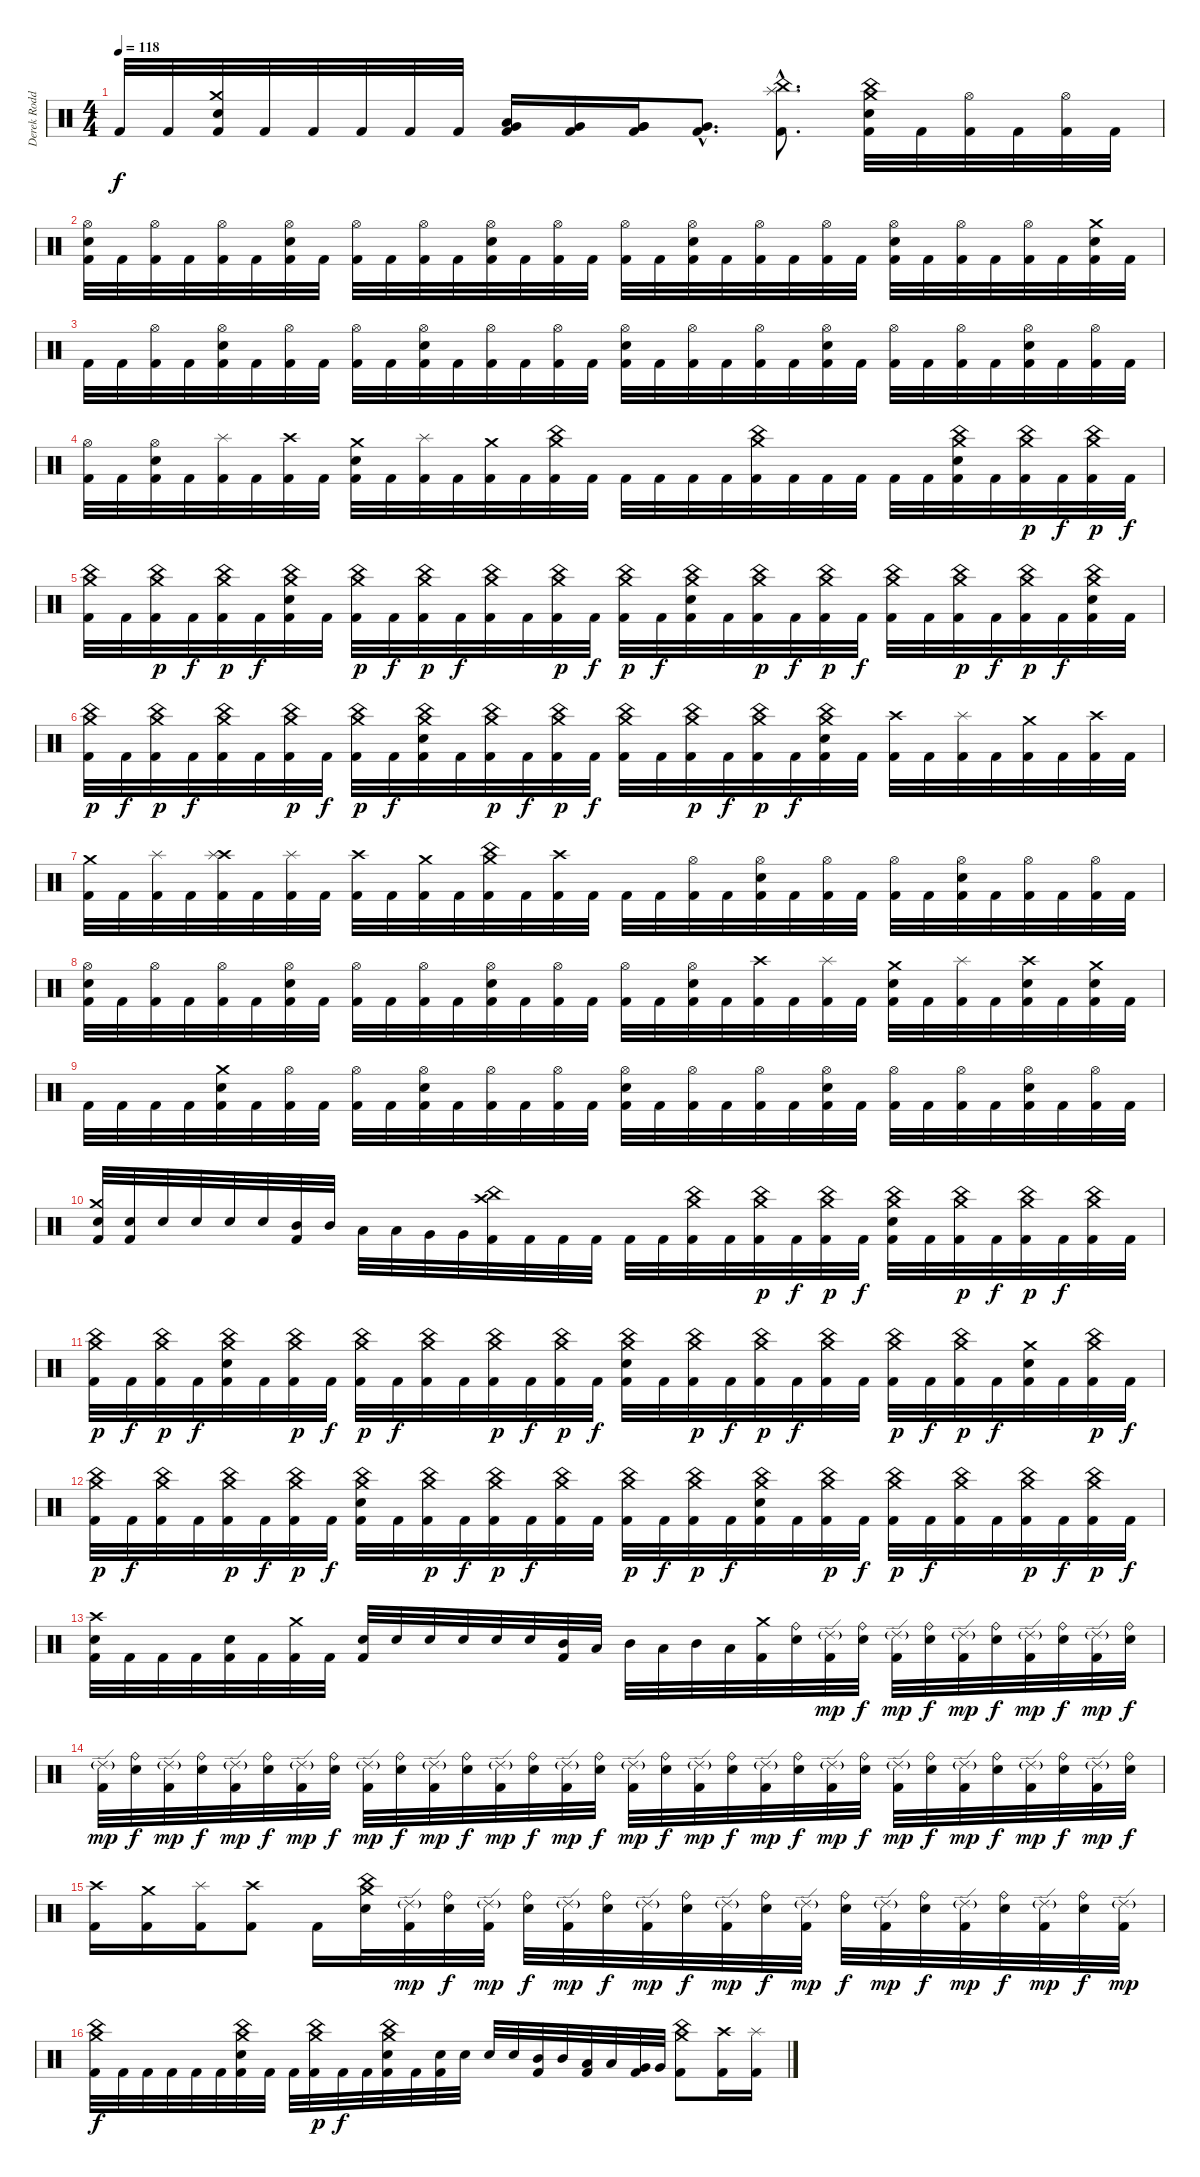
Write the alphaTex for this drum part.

\track ("Derek Roddy" "Derek Rodd") {instrument percussion}
\staff {score}
\articulation defaults
\ts (4 4)
\tempo 118
\clef neutral
\ks c "Kick (hit) 2".32{dy f} "Kick (hit) 2".32
("Crash medium (hit)" "Electric Snare (hit)" "Kick (hit) 2").32 "Kick (hit) 2".32 "Kick (hit) 2".32 "Kick (hit) 2".32 "Kick (hit) 2".32 "Kick (hit) 2".32 ("Low Tom (hit)" "Very Low Tom (hit)" "Kick (hit) 2").16 ("Very Low Tom (hit)" "Kick (hit) 2").16 ("Very Low Tom (hit)" "Very Low Tom (hit)" "Kick (hit) 2").16 ("Very Low Tom (hit)"{hac} "Kick (hit) 2"{hac}).8{d} ("Splash (hit)"{hac} "China (hit)"{hac} "Kick (hit) 2"{hac}).8{d} ("Crash medium (hit)" "China (hit)" "Electric Snare (hit)" "Kick (hit) 2").32 "Kick (hit) 2".32 ("Hi-Hat (open)" "Kick (hit) 2").32 "Kick (hit) 2".32 ("Hi-Hat (open)" "Kick (hit) 2").32 "Kick (hit) 2".32 |
("Hi-Hat (open)" "Electric Snare (hit)" "Kick (hit) 2").32 "Kick (hit) 2".32 ("Hi-Hat (open)" "Kick (hit) 2").32 "Kick (hit) 2".32 ("Hi-Hat (open)" "Kick (hit) 2").32 "Kick (hit) 2".32 ("Hi-Hat (open)" "Electric Snare (hit)" "Kick (hit) 2").32 "Kick (hit) 2".32 ("Hi-Hat (open)" "Kick (hit) 2").32 "Kick (hit) 2".32 ("Hi-Hat (open)" "Kick (hit) 2").32 "Kick (hit) 2".32 ("Hi-Hat (open)" "Electric Snare (hit)" "Kick (hit) 2").32 "Kick (hit) 2".32 ("Hi-Hat (open)" "Kick (hit) 2").32 "Kick (hit) 2".32 ("Hi-Hat (open)" "Kick (hit) 2").32 "Kick (hit) 2".32 ("Hi-Hat (open)" "Electric Snare (hit)" "Kick (hit) 2").32 "Kick (hit) 2".32 ("Hi-Hat (open)" "Kick (hit) 2").32 "Kick (hit) 2".32 ("Hi-Hat (open)" "Kick (hit) 2").32 "Kick (hit) 2".32 ("Hi-Hat (open)" "Electric Snare (hit)" "Kick (hit) 2").32 "Kick (hit) 2".32 ("Hi-Hat (open)" "Kick (hit) 2").32 "Kick (hit) 2".32 ("Hi-Hat (open)" "Kick (hit) 2").32 "Kick (hit) 2".32 ("Crash medium (hit)" "Electric Snare (hit)" "Kick (hit) 2").32 "Kick (hit) 2".32 |
"Kick (hit) 2".32 "Kick (hit) 2".32 ("Hi-Hat (open)" "Kick (hit) 2").32 "Kick (hit) 2".32 ("Hi-Hat (open)" "Electric Snare (hit)" "Kick (hit) 2").32 "Kick (hit) 2".32 ("Hi-Hat (open)" "Kick (hit) 2").32 "Kick (hit) 2".32 ("Hi-Hat (open)" "Kick (hit) 2").32 "Kick (hit) 2".32 ("Hi-Hat (open)" "Electric Snare (hit)" "Kick (hit) 2").32 "Kick (hit) 2".32 ("Hi-Hat (open)" "Kick (hit) 2").32 "Kick (hit) 2".32 ("Hi-Hat (open)" "Kick (hit) 2").32 "Kick (hit) 2".32 ("Hi-Hat (open)" "Electric Snare (hit)" "Kick (hit) 2").32 "Kick (hit) 2".32 ("Hi-Hat (open)" "Kick (hit) 2").32 "Kick (hit) 2".32 ("Hi-Hat (open)" "Kick (hit) 2").32 "Kick (hit) 2".32 ("Hi-Hat (open)" "Electric Snare (hit)" "Kick (hit) 2").32 "Kick (hit) 2".32 ("Hi-Hat (open)" "Kick (hit) 2").32 "Kick (hit) 2".32 ("Hi-Hat (open)" "Kick (hit) 2").32 "Kick (hit) 2".32 ("Hi-Hat (open)" "Electric Snare (hit)" "Kick (hit) 2").32 "Kick (hit) 2".32 ("Hi-Hat (open)" "Kick (hit) 2").32 "Kick (hit) 2".32 |
("Hi-Hat (open)" "Kick (hit) 2").32 "Kick (hit) 2".32 ("Hi-Hat (open)" "Electric Snare (hit)" "Kick (hit) 2").32 "Kick (hit) 2".32 ("Splash (hit)" "Kick (hit) 2").32 "Kick (hit) 2".32 ("Crash high (hit)" "Kick (hit) 2").32 "Kick (hit) 2".32 ("Crash medium (hit)" "Electric Snare (hit)" "Kick (hit) 2").32 "Kick (hit) 2".32 ("Splash (hit)" "Kick (hit) 2").32 "Kick (hit) 2".32 ("Crash medium (hit)" "Kick (hit) 2").32 "Kick (hit) 2".32 ("Crash medium (hit)" "China (hit)" "Kick (hit) 2").32 "Kick (hit) 2".32 "Kick (hit) 2".32 "Kick (hit) 2".32 "Kick (hit) 2".32 "Kick (hit) 2".32 ("Crash medium (hit)" "China (hit)" "Kick (hit) 2").32 "Kick (hit) 2".32 "Kick (hit) 2".32 "Kick (hit) 2".32 "Kick (hit) 2".32 "Kick (hit) 2".32 ("Crash medium (hit)" "China (hit)" "Electric Snare (hit)" "Kick (hit) 2").32 "Kick (hit) 2".32 ("Crash medium (hit)" "China (hit)" "Kick (hit) 2").32{dy p} "Kick (hit) 2".32{dy f} ("Crash medium (hit)" "China (hit)" "Kick (hit) 2").32{dy p} "Kick (hit) 2".32{dy f} |
("Crash medium (hit)" "China (hit)" "Kick (hit) 2").32 "Kick (hit) 2".32 ("Crash medium (hit)" "China (hit)" "Kick (hit) 2").32{dy p} "Kick (hit) 2".32{dy f} ("Crash medium (hit)" "China (hit)" "Kick (hit) 2").32{dy p} "Kick (hit) 2".32{dy f} ("Crash medium (hit)" "China (hit)" "Electric Snare (hit)" "Kick (hit) 2").32 "Kick (hit) 2".32 ("Crash medium (hit)" "China (hit)" "Kick (hit) 2").32{dy p} "Kick (hit) 2".32{dy f} ("Crash medium (hit)" "China (hit)" "Kick (hit) 2").32{dy p} "Kick (hit) 2".32{dy f} ("Crash medium (hit)" "China (hit)" "Kick (hit) 2").32 "Kick (hit) 2".32 ("Crash medium (hit)" "China (hit)" "Kick (hit) 2").32{dy p} "Kick (hit) 2".32{dy f} ("Crash medium (hit)" "China (hit)" "Kick (hit) 2").32{dy p} "Kick (hit) 2".32{dy f} ("Crash medium (hit)" "China (hit)" "Electric Snare (hit)" "Kick (hit) 2").32 "Kick (hit) 2".32 ("Crash medium (hit)" "China (hit)" "Kick (hit) 2").32{dy p} "Kick (hit) 2".32{dy f} ("Crash medium (hit)" "China (hit)" "Kick (hit) 2").32{dy p} "Kick (hit) 2".32{dy f} ("Crash medium (hit)" "China (hit)" "Kick (hit) 2").32 "Kick (hit) 2".32 ("Crash medium (hit)" "China (hit)" "Kick (hit) 2").32{dy p} "Kick (hit) 2".32{dy f} ("Crash medium (hit)" "China (hit)" "Kick (hit) 2").32{dy p} "Kick (hit) 2".32{dy f} ("Crash medium (hit)" "China (hit)" "Electric Snare (hit)" "Kick (hit) 2").32 "Kick (hit) 2".32 |
("Crash medium (hit)" "China (hit)" "Kick (hit) 2").32{dy p} "Kick (hit) 2".32{dy f} ("Crash medium (hit)" "China (hit)" "Kick (hit) 2").32{dy p} "Kick (hit) 2".32{dy f} ("Crash medium (hit)" "China (hit)" "Kick (hit) 2").32 "Kick (hit) 2".32 ("Crash medium (hit)" "China (hit)" "Kick (hit) 2").32{dy p} "Kick (hit) 2".32{dy f} ("Crash medium (hit)" "China (hit)" "Kick (hit) 2").32{dy p} "Kick (hit) 2".32{dy f} ("Crash medium (hit)" "China (hit)" "Electric Snare (hit)" "Kick (hit) 2").32 "Kick (hit) 2".32 ("Crash medium (hit)" "China (hit)" "Kick (hit) 2").32{dy p} "Kick (hit) 2".32{dy f} ("Crash medium (hit)" "China (hit)" "Kick (hit) 2").32{dy p} "Kick (hit) 2".32{dy f} ("Crash medium (hit)" "China (hit)" "Kick (hit) 2").32 "Kick (hit) 2".32 ("Crash medium (hit)" "China (hit)" "Kick (hit) 2").32{dy p} "Kick (hit) 2".32{dy f} ("Crash medium (hit)" "China (hit)" "Kick (hit) 2").32{dy p} "Kick (hit) 2".32{dy f} ("Crash medium (hit)" "China (hit)" "Electric Snare (hit)" "Kick (hit) 2").32 "Kick (hit) 2".32 ("Crash high (hit)" "Kick (hit) 2").32 "Kick (hit) 2".32 ("Splash (hit)" "Kick (hit) 2").32 "Kick (hit) 2".32 ("Crash medium (hit)" "Kick (hit) 2").32 "Kick (hit) 2".32 ("Crash high (hit)" "Kick (hit) 2").32 "Kick (hit) 2".32 |
("Crash medium (hit)" "Kick (hit) 2").32 "Kick (hit) 2".32 ("Splash (hit)" "Kick (hit) 2").32 "Kick (hit) 2".32 ("Crash high (hit)" "Splash (hit)" "Kick (hit) 2").32 "Kick (hit) 2".32 ("Splash (hit)" "Kick (hit) 2").32 "Kick (hit) 2".32 ("Crash high (hit)" "Kick (hit) 2").32 "Kick (hit) 2".32 ("Crash medium (hit)" "Kick (hit) 2").32 "Kick (hit) 2".32 ("Crash medium (hit)" "China (hit)" "Kick (hit) 2").32 "Kick (hit) 2".32 ("Crash high (hit)" "Kick (hit) 2").32 "Kick (hit) 2".32 "Kick (hit) 2".32 "Kick (hit) 2".32 ("Hi-Hat (open)" "Kick (hit) 2").32 "Kick (hit) 2".32 ("Hi-Hat (open)" "Electric Snare (hit)" "Kick (hit) 2").32 "Kick (hit) 2".32 ("Hi-Hat (open)" "Kick (hit) 2").32 "Kick (hit) 2".32 ("Hi-Hat (open)" "Kick (hit) 2").32 "Kick (hit) 2".32 ("Hi-Hat (open)" "Electric Snare (hit)" "Kick (hit) 2").32 "Kick (hit) 2".32 ("Hi-Hat (open)" "Kick (hit) 2").32 "Kick (hit) 2".32 ("Hi-Hat (open)" "Kick (hit) 2").32 "Kick (hit) 2".32 |
("Hi-Hat (open)" "Electric Snare (hit)" "Kick (hit) 2").32 "Kick (hit) 2".32 ("Hi-Hat (open)" "Kick (hit) 2").32 "Kick (hit) 2".32 ("Hi-Hat (open)" "Kick (hit) 2").32 "Kick (hit) 2".32 ("Hi-Hat (open)" "Electric Snare (hit)" "Kick (hit) 2").32 "Kick (hit) 2".32 ("Hi-Hat (open)" "Kick (hit) 2").32 "Kick (hit) 2".32 ("Hi-Hat (open)" "Kick (hit) 2").32 "Kick (hit) 2".32 ("Hi-Hat (open)" "Electric Snare (hit)" "Kick (hit) 2").32 "Kick (hit) 2".32 ("Hi-Hat (open)" "Kick (hit) 2").32 "Kick (hit) 2".32 ("Hi-Hat (open)" "Kick (hit) 2").32 "Kick (hit) 2".32 ("Hi-Hat (open)" "Electric Snare (hit)" "Kick (hit) 2").32 "Kick (hit) 2".32 ("Crash high (hit)" "Kick (hit) 2").32 "Kick (hit) 2".32 ("Splash (hit)" "Kick (hit) 2").32 "Kick (hit) 2".32 ("Crash medium (hit)" "Electric Snare (hit)" "Kick (hit) 2").32 "Kick (hit) 2".32 ("Splash (hit)" "Kick (hit) 2").32 "Kick (hit) 2".32 ("Crash high (hit)" "Electric Snare (hit)" "Kick (hit) 2").32 "Kick (hit) 2".32 ("Crash medium (hit)" "Electric Snare (hit)" "Kick (hit) 2").32 "Kick (hit) 2".32 |
"Kick (hit) 2".32 "Kick (hit) 2".32 "Kick (hit) 2".32 "Kick (hit) 2".32 ("Crash medium (hit)" "Electric Snare (hit)" "Kick (hit) 2").32 "Kick (hit) 2".32 ("Hi-Hat (open)" "Kick (hit) 2").32 "Kick (hit) 2".32 ("Hi-Hat (open)" "Kick (hit) 2").32 "Kick (hit) 2".32 ("Hi-Hat (open)" "Electric Snare (hit)" "Kick (hit) 2").32 "Kick (hit) 2".32 ("Hi-Hat (open)" "Kick (hit) 2").32 "Kick (hit) 2".32 ("Hi-Hat (open)" "Kick (hit) 2").32 "Kick (hit) 2".32 ("Hi-Hat (open)" "Electric Snare (hit)" "Kick (hit) 2").32 "Kick (hit) 2".32 ("Hi-Hat (open)" "Kick (hit) 2").32 "Kick (hit) 2".32 ("Hi-Hat (open)" "Kick (hit) 2").32 "Kick (hit) 2".32 ("Hi-Hat (open)" "Electric Snare (hit)" "Kick (hit) 2").32 "Kick (hit) 2".32 ("Hi-Hat (open)" "Kick (hit) 2").32 "Kick (hit) 2".32 ("Hi-Hat (open)" "Kick (hit) 2").32 "Kick (hit) 2".32 ("Hi-Hat (open)" "Electric Snare (hit)" "Kick (hit) 2").32 "Kick (hit) 2".32 ("Hi-Hat (open)" "Kick (hit) 2").32 "Kick (hit) 2".32 |
("Crash medium (hit)" "Electric Snare (hit)" "Kick (hit) 2").32 ("Electric Snare (hit)" "Kick (hit) 2").32 "Electric Snare (hit)".32 "Electric Snare (hit)".32 "Electric Snare (hit)".32 "Electric Snare (hit)".32 ("Mid Tom (hit)" "Kick (hit) 2").32 "Mid Tom (hit)".32 "Low Tom (hit)".32 "Low Tom (hit)".32 "Very Low Tom (hit)".32 "Very Low Tom (hit)".32 ("Crash high (hit)" "China (hit)" "Kick (hit) 2").32 "Kick (hit) 2".32 "Kick (hit) 2".32 "Kick (hit) 2".32 "Kick (hit) 2".32 "Kick (hit) 2".32 ("Crash medium (hit)" "China (hit)" "Kick (hit) 2").32 "Kick (hit) 2".32 ("Crash medium (hit)" "China (hit)" "Kick (hit) 2").32{dy p} "Kick (hit) 2".32{dy f} ("Crash medium (hit)" "China (hit)" "Kick (hit) 2").32{dy p} "Kick (hit) 2".32{dy f} ("Crash medium (hit)" "China (hit)" "Electric Snare (hit)" "Kick (hit) 2").32 "Kick (hit) 2".32 ("Crash medium (hit)" "China (hit)" "Kick (hit) 2").32{dy p} "Kick (hit) 2".32{dy f} ("Crash medium (hit)" "China (hit)" "Kick (hit) 2").32{dy p} "Kick (hit) 2".32{dy f} ("Crash medium (hit)" "China (hit)" "Kick (hit) 2").32 "Kick (hit) 2".32 |
("Crash medium (hit)" "China (hit)" "Kick (hit) 2").32{dy p} "Kick (hit) 2".32{dy f} ("Crash medium (hit)" "China (hit)" "Kick (hit) 2").32{dy p} "Kick (hit) 2".32{dy f} ("Crash medium (hit)" "China (hit)" "Electric Snare (hit)" "Kick (hit) 2").32 "Kick (hit) 2".32 ("Crash medium (hit)" "China (hit)" "Kick (hit) 2").32{dy p} "Kick (hit) 2".32{dy f} ("Crash medium (hit)" "China (hit)" "Kick (hit) 2").32{dy p} "Kick (hit) 2".32{dy f} ("Crash medium (hit)" "China (hit)" "Kick (hit) 2").32 "Kick (hit) 2".32 ("Crash medium (hit)" "China (hit)" "Kick (hit) 2").32{dy p} "Kick (hit) 2".32{dy f} ("Crash medium (hit)" "China (hit)" "Kick (hit) 2").32{dy p} "Kick (hit) 2".32{dy f} ("Crash medium (hit)" "China (hit)" "Electric Snare (hit)" "Kick (hit) 2").32 "Kick (hit) 2".32 ("Crash medium (hit)" "China (hit)" "Kick (hit) 2").32{dy p} "Kick (hit) 2".32{dy f} ("Crash medium (hit)" "China (hit)" "Kick (hit) 2").32{dy p} "Kick (hit) 2".32{dy f} ("Crash medium (hit)" "China (hit)" "Kick (hit) 2").32 "Kick (hit) 2".32 ("Crash medium (hit)" "China (hit)" "Kick (hit) 2").32{dy p} "Kick (hit) 2".32{dy f} ("Crash medium (hit)" "China (hit)" "Kick (hit) 2").32{dy p} "Kick (hit) 2".32{dy f} ("Crash medium (hit)" "Electric Snare (hit)" "Kick (hit) 2").32 "Kick (hit) 2".32 ("Crash medium (hit)" "China (hit)" "Kick (hit) 2").32{dy p} "Kick (hit) 2".32{dy f} |
("Crash medium (hit)" "China (hit)" "Kick (hit) 2").32{dy p} "Kick (hit) 2".32{dy f} ("Crash medium (hit)" "China (hit)" "Kick (hit) 2").32 "Kick (hit) 2".32 ("Crash medium (hit)" "China (hit)" "Kick (hit) 2").32{dy p} "Kick (hit) 2".32{dy f} ("Crash medium (hit)" "China (hit)" "Kick (hit) 2").32{dy p} "Kick (hit) 2".32{dy f} ("Crash medium (hit)" "China (hit)" "Electric Snare (hit)" "Kick (hit) 2").32 "Kick (hit) 2".32 ("Crash medium (hit)" "China (hit)" "Kick (hit) 2").32{dy p} "Kick (hit) 2".32{dy f} ("Crash medium (hit)" "China (hit)" "Kick (hit) 2").32{dy p} "Kick (hit) 2".32{dy f} ("Crash medium (hit)" "China (hit)" "Kick (hit) 2").32 "Kick (hit) 2".32 ("Crash medium (hit)" "China (hit)" "Kick (hit) 2").32{dy p} "Kick (hit) 2".32{dy f} ("Crash medium (hit)" "China (hit)" "Kick (hit) 2").32{dy p} "Kick (hit) 2".32{dy f} ("Crash medium (hit)" "China (hit)" "Electric Snare (hit)" "Kick (hit) 2").32 "Kick (hit) 2".32 ("Crash medium (hit)" "China (hit)" "Kick (hit) 2").32{dy p} "Kick (hit) 2".32{dy f} ("Crash medium (hit)" "China (hit)" "Kick (hit) 2").32{dy p} "Kick (hit) 2".32{dy f} ("Crash medium (hit)" "China (hit)" "Kick (hit) 2").32 "Kick (hit) 2".32 ("Crash medium (hit)" "China (hit)" "Kick (hit) 2").32{dy p} "Kick (hit) 2".32{dy f} ("Crash medium (hit)" "China (hit)" "Kick (hit) 2").32{dy p} "Kick (hit) 2".32{dy f} |
("Crash high (hit)" "Electric Snare (hit)" "Kick (hit) 2").32 "Kick (hit) 2".32 "Kick (hit) 2".32 "Kick (hit) 2".32 ("Electric Snare (hit)" "Kick (hit) 2").32 "Kick (hit) 2".32 ("Crash medium (hit)" "Kick (hit) 2").32 "Kick (hit) 2".32 ("Electric Snare (hit)" "Kick (hit) 2").32 "Electric Snare (hit)".32 "Electric Snare (hit)".32 "Electric Snare (hit)".32 "Electric Snare (hit)".32 "Electric Snare (hit)".32 ("Mid Tom (hit)" "Kick (hit) 2").32 "Low Tom (hit)".32 "Mid Tom (hit)".32 "Low Tom (hit)".32 "Mid Tom (hit)".32 "Low Tom (hit)".32 ("Crash medium (hit)" "Kick (hit) 2").32 ("Ride (bell)" "Electric Snare (hit)").32 ("Ride (edge) 2"{g} "Kick (hit) 2").32{dy mp} ("Ride (bell)" "Electric Snare (hit)").32{dy f} ("Ride (edge) 2"{g} "Kick (hit) 2").32{dy mp} ("Ride (bell)" "Electric Snare (hit)").32{dy f} ("Ride (edge) 2"{g} "Kick (hit) 2").32{dy mp} ("Ride (bell)" "Electric Snare (hit)").32{dy f} ("Ride (edge) 2"{g} "Kick (hit) 2").32{dy mp} ("Ride (bell)" "Electric Snare (hit)").32{dy f} ("Ride (edge) 2"{g} "Kick (hit) 2").32{dy mp} ("Ride (bell)" "Electric Snare (hit)").32{dy f} |
("Ride (edge) 2"{g} "Kick (hit) 2").32{dy mp} ("Ride (bell)" "Electric Snare (hit)").32{dy f} ("Ride (edge) 2"{g} "Kick (hit) 2").32{dy mp} ("Ride (bell)" "Electric Snare (hit)").32{dy f} ("Ride (edge) 2"{g} "Kick (hit) 2").32{dy mp} ("Ride (bell)" "Electric Snare (hit)").32{dy f} ("Ride (edge) 2"{g} "Kick (hit) 2").32{dy mp} ("Ride (bell)" "Electric Snare (hit)").32{dy f} ("Ride (edge) 2"{g} "Kick (hit) 2").32{dy mp} ("Ride (bell)" "Electric Snare (hit)").32{dy f} ("Ride (edge) 2"{g} "Kick (hit) 2").32{dy mp} ("Ride (bell)" "Electric Snare (hit)").32{dy f} ("Ride (edge) 2"{g} "Kick (hit) 2").32{dy mp} ("Ride (bell)" "Electric Snare (hit)").32{dy f} ("Ride (edge) 2"{g} "Kick (hit) 2").32{dy mp} ("Ride (bell)" "Electric Snare (hit)").32{dy f} ("Ride (edge) 2"{g} "Kick (hit) 2").32{dy mp} ("Ride (bell)" "Electric Snare (hit)").32{dy f} ("Ride (edge) 2"{g} "Kick (hit) 2").32{dy mp} ("Ride (bell)" "Electric Snare (hit)").32{dy f} ("Ride (edge) 2"{g} "Kick (hit) 2").32{dy mp} ("Ride (bell)" "Electric Snare (hit)").32{dy f} ("Ride (edge) 2"{g} "Kick (hit) 2").32{dy mp} ("Ride (bell)" "Electric Snare (hit)").32{dy f} ("Ride (edge) 2"{g} "Kick (hit) 2").32{dy mp} ("Ride (bell)" "Electric Snare (hit)").32{dy f} ("Ride (edge) 2"{g} "Kick (hit) 2").32{dy mp} ("Ride (bell)" "Electric Snare (hit)").32{dy f} ("Ride (edge) 2"{g} "Kick (hit) 2").32{dy mp} ("Ride (bell)" "Electric Snare (hit)").32{dy f} ("Ride (edge) 2"{g} "Kick (hit) 2").32{dy mp} ("Ride (bell)" "Electric Snare (hit)").32{dy f} |
("Crash high (hit)" "Kick (hit) 2").16 ("Crash medium (hit)" "Kick (hit) 2").16 ("Splash (hit)" "Kick (hit) 2").16 ("Crash high (hit)" "Kick (hit) 2").8 "Kick (hit) 2".16 ("Crash medium (hit)" "China (hit)" "Electric Snare (hit)").32 ("Ride (edge) 2"{g} "Kick (hit) 2").32{dy mp} ("Ride (bell)" "Electric Snare (hit)").32{dy f} ("Ride (edge) 2"{g} "Kick (hit) 2").32{dy mp} ("Ride (bell)" "Electric Snare (hit)").32{dy f} ("Ride (edge) 2"{g} "Kick (hit) 2").32{dy mp} ("Ride (bell)" "Electric Snare (hit)").32{dy f} ("Ride (edge) 2"{g} "Kick (hit) 2").32{dy mp} ("Ride (bell)" "Electric Snare (hit)").32{dy f} ("Ride (edge) 2"{g} "Kick (hit) 2").32{dy mp} ("Ride (bell)" "Electric Snare (hit)").32{dy f} ("Ride (edge) 2"{g} "Kick (hit) 2").32{dy mp} ("Ride (bell)" "Electric Snare (hit)").32{dy f} ("Ride (edge) 2"{g} "Kick (hit) 2").32{dy mp} ("Ride (bell)" "Electric Snare (hit)").32{dy f} ("Ride (edge) 2"{g} "Kick (hit) 2").32{dy mp} ("Ride (bell)" "Electric Snare (hit)").32{dy f} ("Ride (edge) 2"{g} "Kick (hit) 2").32{dy mp} ("Ride (bell)" "Electric Snare (hit)").32{dy f} ("Ride (edge) 2"{g} "Kick (hit) 2").32{dy mp} |
("Crash medium (hit)" "China (hit)" "Kick (hit) 2").32{dy f} "Kick (hit) 2".32 "Kick (hit) 2".32 "Kick (hit) 2".32 "Kick (hit) 2".32 "Kick (hit) 2".32 ("Crash medium (hit)" "China (hit)" "Electric Snare (hit)" "Kick (hit) 2").32 "Kick (hit) 2".32 "Kick (hit) 2".32 ("Crash medium (hit)" "China (hit)" "Kick (hit) 2").32{dy p} "Kick (hit) 2".32{dy f} "Kick (hit) 2".32 ("Crash medium (hit)" "China (hit)" "Electric Snare (hit)" "Kick (hit) 2").32 "Kick (hit) 2".32 ("Electric Snare (hit)" "Kick (hit) 2").32 "Electric Snare (hit)".32 "Electric Snare (hit)".32 "Electric Snare (hit)".32 ("Mid Tom (hit)" "Kick (hit) 2").32 "Mid Tom (hit)".32 ("Low Tom (hit)" "Kick (hit) 2").32 "Low Tom (hit)".32 ("Very Low Tom (hit)" "Kick (hit) 2").32 "Very Low Tom (hit)".32 ("Crash medium (hit)" "China (hit)" "Kick (hit) 2").8 ("Crash high (hit)" "Kick (hit) 2").16 ("Splash (hit)" "Kick (hit) 2").16
